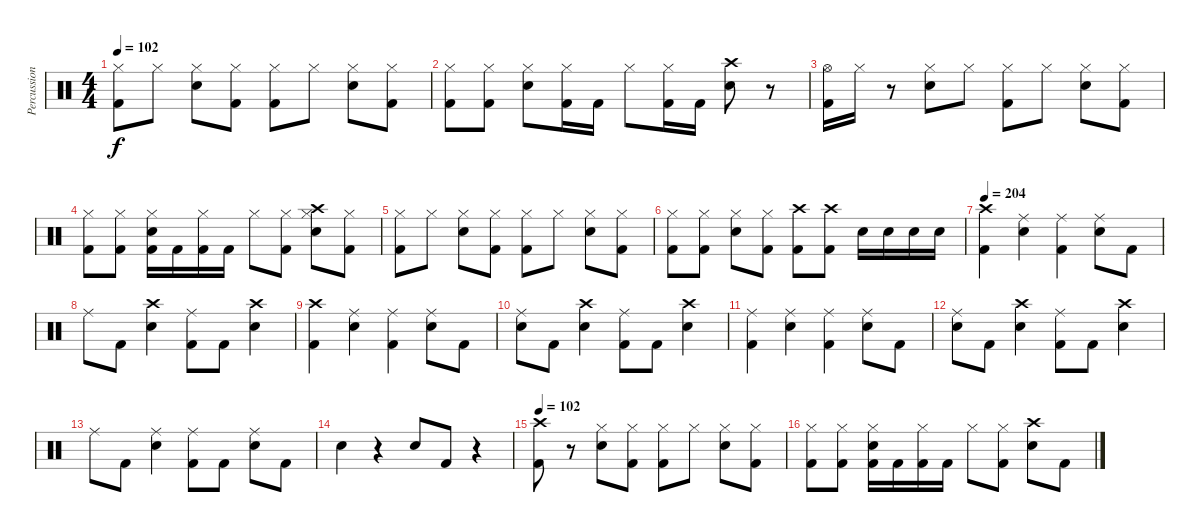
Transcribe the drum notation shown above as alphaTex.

\track ("Percussion" "Percussion") {instrument percussion}
\staff {score}
\articulation defaults
\ts (4 4)
\tempo 102
\clef neutral
\ks c
("Hi-Hat (closed)" "Kick (hit) 2").8{dy f} "Hi-Hat (closed)".8 ("Hi-Hat (closed)" "Snare (hit) 2").8 ("Hi-Hat (closed)" "Kick (hit) 2").8 ("Hi-Hat (closed)" "Kick (hit) 2").8 "Hi-Hat (closed)".8 ("Hi-Hat (closed)" "Snare (hit) 2").8 ("Hi-Hat (closed)" "Kick (hit) 2").8 |
("Hi-Hat (closed)" "Kick (hit) 2").8 ("Hi-Hat (closed)" "Kick (hit) 2").8 ("Hi-Hat (closed)" "Snare (hit) 2").8 ("Hi-Hat (closed)" "Kick (hit) 2").16 "Kick (hit) 2".16 "Hi-Hat (closed)".8 ("Hi-Hat (closed)" "Kick (hit) 2").16 "Kick (hit) 2".16 ("Snare (hit) 2" "Crash high (hit)").8 r.8 |
("Hi-Hat (open)" "Kick (hit) 2").16 "Hi-Hat (closed)".16 r.8 ("Hi-Hat (closed)" "Snare (hit) 2").8 "Hi-Hat (closed)".8 ("Hi-Hat (closed)" "Kick (hit) 2").8 "Hi-Hat (closed)".8 ("Hi-Hat (closed)" "Snare (hit) 2").8 ("Hi-Hat (closed)" "Kick (hit) 2").8 |
("Hi-Hat (closed)" "Kick (hit) 2").8 ("Hi-Hat (closed)" "Kick (hit) 2").8 ("Hi-Hat (closed)" "Snare (hit) 2" "Kick (hit) 2").16 "Kick (hit) 2".16 ("Hi-Hat (closed)" "Kick (hit) 2").16 "Kick (hit) 2".16 "Hi-Hat (closed)".8 ("Hi-Hat (closed)" "Kick (hit) 2").8 ("Hi-Hat (closed)" "Snare (hit) 2" "Crash high (hit)").8 ("Hi-Hat (closed)" "Kick (hit) 2").8 |
("Hi-Hat (closed)" "Kick (hit) 2").8 "Hi-Hat (closed)".8 ("Hi-Hat (closed)" "Snare (hit) 2").8 ("Hi-Hat (closed)" "Kick (hit) 2").8 ("Hi-Hat (closed)" "Kick (hit) 2").8 "Hi-Hat (closed)".8 ("Hi-Hat (closed)" "Snare (hit) 2").8 ("Hi-Hat (closed)" "Kick (hit) 2").8 |
("Hi-Hat (closed)" "Kick (hit) 2").8 ("Hi-Hat (closed)" "Kick (hit) 2").8 ("Hi-Hat (closed)" "Snare (hit) 2").8 ("Hi-Hat (closed)" "Kick (hit) 2").8 ("Kick (hit) 2" "Crash high (hit)").8 ("Kick (hit) 2" "Crash high (hit)").8 "Snare (hit) 2".16 "Snare (hit) 2".16 "Snare (hit) 2".16 "Snare (hit) 2".16 |
\tempo 204
("Kick (hit) 2" "Crash high (hit)").4 ("Snare (hit) 2" "Ride (middle)").4 ("Kick (hit) 2" "Ride (middle)").4 ("Snare (hit) 2" "Ride (middle)").8 "Kick (hit) 2".8 |
"Ride (middle)".8 "Kick (hit) 2".8 ("Snare (hit) 2" "Crash high (hit)").4 ("Kick (hit) 2" "Ride (middle)").8 "Kick (hit) 2".8 ("Snare (hit) 2" "Crash high (hit)").4 |
("Kick (hit) 2" "Crash high (hit)").4 ("Snare (hit) 2" "Ride (middle)").4 ("Kick (hit) 2" "Ride (middle)").4 ("Snare (hit) 2" "Ride (middle)").8 "Kick (hit) 2".8 |
("Snare (hit) 2" "Ride (middle)").8 "Kick (hit) 2".8 ("Snare (hit) 2" "Crash high (hit)").4 ("Kick (hit) 2" "Ride (middle)").8 "Kick (hit) 2".8 ("Snare (hit) 2" "Crash high (hit)").4 |
("Kick (hit) 2" "Ride (middle)").4 ("Snare (hit) 2" "Ride (middle)").4 ("Kick (hit) 2" "Ride (middle)").4 ("Snare (hit) 2" "Ride (middle)").8 "Kick (hit) 2".8 |
("Snare (hit) 2" "Ride (middle)").8 "Kick (hit) 2".8 ("Snare (hit) 2" "Crash high (hit)").4 ("Kick (hit) 2" "Ride (middle)").8 "Kick (hit) 2".8 ("Snare (hit) 2" "Crash high (hit)").4 |
"Ride (middle)".8 "Kick (hit) 2".8 ("Snare (hit) 2" "Ride (middle)").4 ("Kick (hit) 2" "Ride (middle)").8 "Kick (hit) 2".8 ("Snare (hit) 2" "Ride (middle)").8 "Kick (hit) 2".8 |
"Snare (hit) 2".4 r.4 "Electric Snare (hit)".8 "Kick (hit) 2".8 r.4 |
\tempo 102
("Kick (hit) 2" "Crash high (hit)").8 r.8 ("Hi-Hat (closed)" "Snare (hit) 2").8 ("Hi-Hat (closed)" "Kick (hit) 2").8 ("Hi-Hat (closed)" "Kick (hit) 2").8 "Hi-Hat (closed)".8 ("Hi-Hat (closed)" "Snare (hit) 2").8 ("Hi-Hat (closed)" "Kick (hit) 2").8 |
("Hi-Hat (closed)" "Kick (hit) 2").8 ("Hi-Hat (closed)" "Kick (hit) 2").8 ("Hi-Hat (closed)" "Snare (hit) 2" "Kick (hit) 2").16 "Kick (hit) 2".16 ("Hi-Hat (closed)" "Kick (hit) 2").16 "Kick (hit) 2".16 "Hi-Hat (closed)".8 ("Hi-Hat (closed)" "Kick (hit) 2").8 ("Snare (hit) 2" "Crash high (hit)").8 "Kick (hit) 2".8
